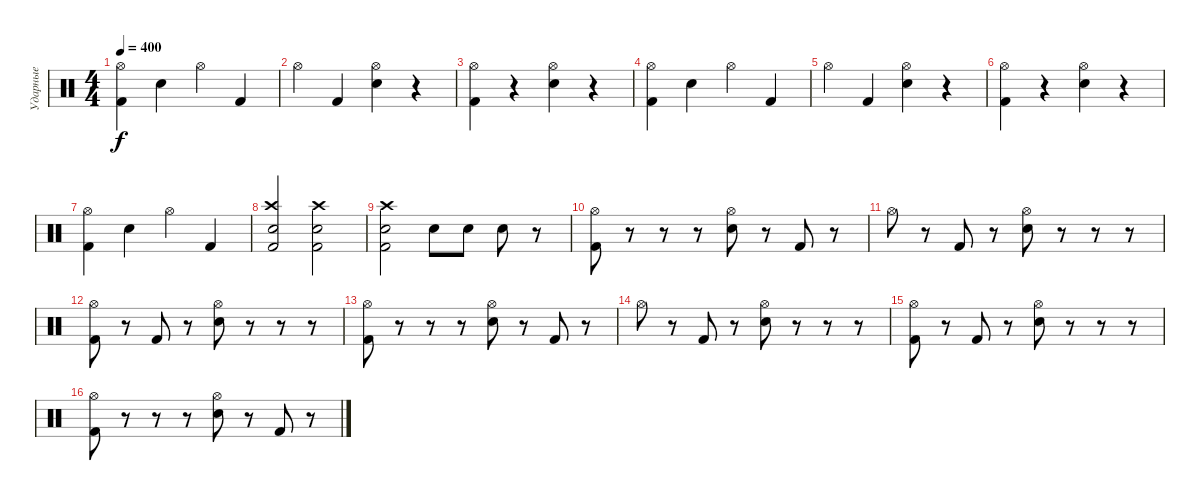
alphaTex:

\track ("Ударные" "Ударные") {instrument percussion}
\staff {score}
\articulation defaults
\ts (4 4)
\tempo 400
\clef neutral
\ks c
("Kick (hit) 2" "Hi-Hat (open)").4{dy f} "Electric Snare (hit)".4 "Hi-Hat (open)".4 "Kick (hit) 2".4 |
"Hi-Hat (open)".4 "Kick (hit) 2".4 ("Electric Snare (hit)" "Hi-Hat (open)").4 r.4 |
("Kick (hit) 2" "Hi-Hat (open)").4 r.4 ("Electric Snare (hit)" "Hi-Hat (open)").4 r.4 |
("Kick (hit) 2" "Hi-Hat (open)").4 "Electric Snare (hit)".4 "Hi-Hat (open)".4 "Kick (hit) 2".4 |
"Hi-Hat (open)".4 "Kick (hit) 2".4 ("Electric Snare (hit)" "Hi-Hat (open)").4 r.4 |
("Kick (hit) 2" "Hi-Hat (open)").4 r.4 ("Electric Snare (hit)" "Hi-Hat (open)").4 r.4 |
("Kick (hit) 2" "Hi-Hat (open)").4 "Electric Snare (hit)".4 "Hi-Hat (open)".4 "Kick (hit) 2".4 |
("Kick (hit) 2" "Crash high (hit)" "Snare (hit) 2").2 ("Crash high (hit)" "Kick (hit) 2" "Electric Snare (hit)").2 |
("Electric Snare (hit)" "Kick (hit) 2" "Crash high (hit)").2 "Electric Snare (hit)".8 "Electric Snare (hit)".8 "Electric Snare (hit)".8 r.8 |
("Kick (hit) 2" "Hi-Hat (open)").8 r.8 r.8 r.8 ("Electric Snare (hit)" "Hi-Hat (open)").8 r.8 "Kick (hit) 2".8 r.8 |
"Hi-Hat (open)".8 r.8 "Kick (hit) 2".8 r.8 ("Electric Snare (hit)" "Hi-Hat (open)").8 r.8 r.8 r.8 |
("Kick (hit) 2" "Hi-Hat (open)").8 r.8 "Kick (hit) 2".8 r.8 ("Electric Snare (hit)" "Hi-Hat (open)").8 r.8 r.8 r.8 |
("Kick (hit) 2" "Hi-Hat (open)").8 r.8 r.8 r.8 ("Electric Snare (hit)" "Hi-Hat (open)").8 r.8 "Kick (hit) 2".8 r.8 |
"Hi-Hat (open)".8 r.8 "Kick (hit) 2".8 r.8 ("Electric Snare (hit)" "Hi-Hat (open)").8 r.8 r.8 r.8 |
("Kick (hit) 2" "Hi-Hat (open)").8 r.8 "Kick (hit) 2".8 r.8 ("Electric Snare (hit)" "Hi-Hat (open)").8 r.8 r.8 r.8 |
("Kick (hit) 2" "Hi-Hat (open)").8 r.8 r.8 r.8 ("Electric Snare (hit)" "Hi-Hat (open)").8 r.8 "Kick (hit) 2".8 r.8
